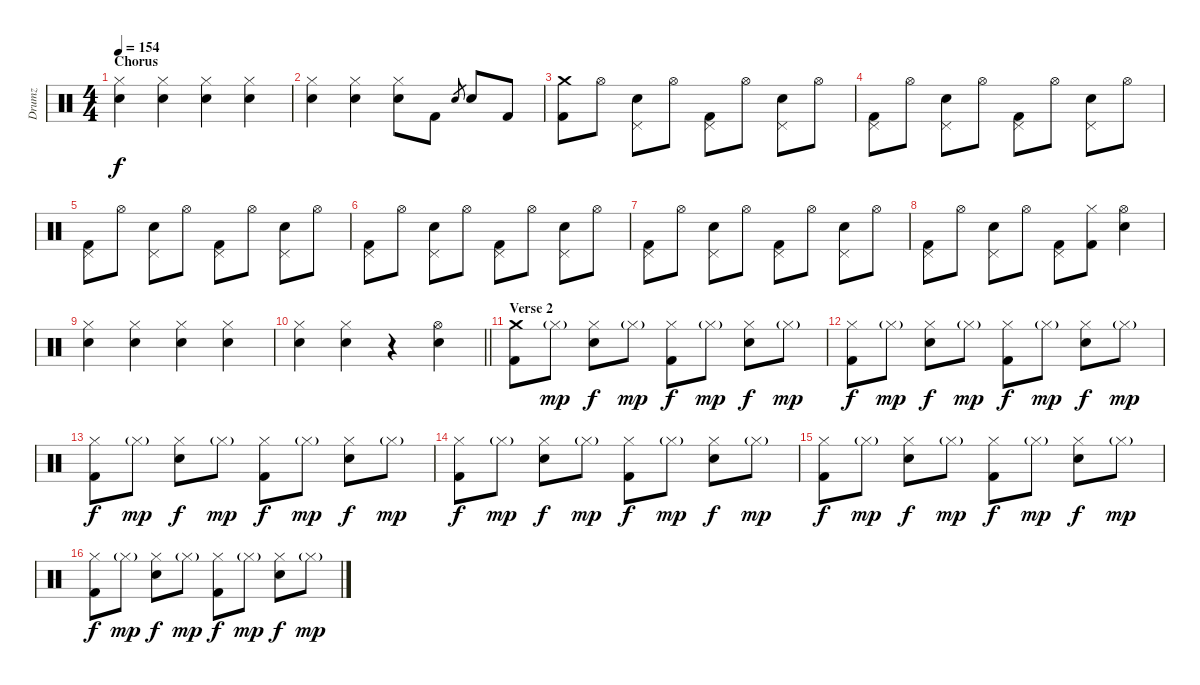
\track ("Drumz" "Drumz") {instrument percussion}
\staff {score}
\articulation defaults
\ts (4 4)
\section ("" "Chorus")
\tempo 154
\clef neutral
\ks c
("Hi-Hat (closed)" "Electric Snare (hit)").4{dy f} ("Hi-Hat (closed)" "Electric Snare (hit)").4 ("Hi-Hat (closed)" "Electric Snare (hit)").4 ("Hi-Hat (closed)" "Electric Snare (hit)").4 |
("Hi-Hat (closed)" "Electric Snare (hit)").4 ("Hi-Hat (closed)" "Electric Snare (hit)").4 ("Hi-Hat (closed)" "Electric Snare (hit)").8 "Kick (hit) 2".8 "Electric Snare (hit)".8{gr} "Electric Snare (hit)".8 "Kick (hit) 2".8 |
("Crash medium (hit)" "Kick (hit) 2").8 "Hi-Hat (open)".8 ("Pedal Hi-Hat (hit)" "Electric Snare (hit)").8 "Hi-Hat (open)".8 ("Pedal Hi-Hat (hit)" "Kick (hit) 2").8 "Hi-Hat (open)".8 ("Pedal Hi-Hat (hit)" "Electric Snare (hit)").8 "Hi-Hat (open)".8 |
("Pedal Hi-Hat (hit)" "Kick (hit) 2").8 "Hi-Hat (open)".8 ("Pedal Hi-Hat (hit)" "Electric Snare (hit)").8 "Hi-Hat (open)".8 ("Pedal Hi-Hat (hit)" "Kick (hit) 2").8 "Hi-Hat (open)".8 ("Pedal Hi-Hat (hit)" "Electric Snare (hit)").8 "Hi-Hat (open)".8 |
("Pedal Hi-Hat (hit)" "Kick (hit) 2").8 "Hi-Hat (open)".8 ("Pedal Hi-Hat (hit)" "Electric Snare (hit)").8 "Hi-Hat (open)".8 ("Pedal Hi-Hat (hit)" "Kick (hit) 2").8 "Hi-Hat (open)".8 ("Pedal Hi-Hat (hit)" "Electric Snare (hit)").8 "Hi-Hat (open)".8 |
("Pedal Hi-Hat (hit)" "Kick (hit) 2").8 "Hi-Hat (open)".8 ("Pedal Hi-Hat (hit)" "Electric Snare (hit)").8 "Hi-Hat (open)".8 ("Pedal Hi-Hat (hit)" "Kick (hit) 2").8 "Hi-Hat (open)".8 ("Pedal Hi-Hat (hit)" "Electric Snare (hit)").8 "Hi-Hat (open)".8 |
("Pedal Hi-Hat (hit)" "Kick (hit) 2").8 "Hi-Hat (open)".8 ("Pedal Hi-Hat (hit)" "Electric Snare (hit)").8 "Hi-Hat (open)".8 ("Pedal Hi-Hat (hit)" "Kick (hit) 2").8 "Hi-Hat (open)".8 ("Pedal Hi-Hat (hit)" "Electric Snare (hit)").8 "Hi-Hat (open)".8 |
("Pedal Hi-Hat (hit)" "Kick (hit) 2").8 "Hi-Hat (open)".8 ("Pedal Hi-Hat (hit)" "Electric Snare (hit)").8 "Hi-Hat (open)".8 ("Pedal Hi-Hat (hit)" "Kick (hit) 2").8 ("Hi-Hat (closed)" "Kick (hit) 2").8 ("Hi-Hat (open)" "Electric Snare (hit)").4 |
("Hi-Hat (closed)" "Electric Snare (hit)").4 ("Hi-Hat (closed)" "Electric Snare (hit)").4 ("Hi-Hat (closed)" "Electric Snare (hit)").4 ("Hi-Hat (closed)" "Electric Snare (hit)").4 |
\barLineRight lightlight
("Hi-Hat (closed)" "Electric Snare (hit)").4 ("Hi-Hat (closed)" "Electric Snare (hit)").4 r.4 ("Hi-Hat (open)" "Electric Snare (hit)").4 |
\section ("" "Verse 2")
("Crash medium (hit)" "Kick (hit) 2").8 "Hi-Hat (closed)"{g}.8{dy mp} ("Hi-Hat (closed)" "Electric Snare (hit)").8{dy f} "Hi-Hat (closed)"{g}.8{dy mp} ("Hi-Hat (closed)" "Kick (hit) 2").8{dy f} "Hi-Hat (closed)"{g}.8{dy mp} ("Hi-Hat (closed)" "Electric Snare (hit)").8{dy f} "Hi-Hat (closed)"{g}.8{dy mp} |
("Hi-Hat (closed)" "Kick (hit) 2").8{dy f} "Hi-Hat (closed)"{g}.8{dy mp} ("Hi-Hat (closed)" "Electric Snare (hit)").8{dy f} "Hi-Hat (closed)"{g}.8{dy mp} ("Hi-Hat (closed)" "Kick (hit) 2").8{dy f} "Hi-Hat (closed)"{g}.8{dy mp} ("Hi-Hat (closed)" "Electric Snare (hit)").8{dy f} "Hi-Hat (closed)"{g}.8{dy mp} |
("Hi-Hat (closed)" "Kick (hit) 2").8{dy f} "Hi-Hat (closed)"{g}.8{dy mp} ("Hi-Hat (closed)" "Electric Snare (hit)").8{dy f} "Hi-Hat (closed)"{g}.8{dy mp} ("Hi-Hat (closed)" "Kick (hit) 2").8{dy f} "Hi-Hat (closed)"{g}.8{dy mp} ("Hi-Hat (closed)" "Electric Snare (hit)").8{dy f} "Hi-Hat (closed)"{g}.8{dy mp} |
("Hi-Hat (closed)" "Kick (hit) 2").8{dy f} "Hi-Hat (closed)"{g}.8{dy mp} ("Hi-Hat (closed)" "Electric Snare (hit)").8{dy f} "Hi-Hat (closed)"{g}.8{dy mp} ("Hi-Hat (closed)" "Kick (hit) 2").8{dy f} "Hi-Hat (closed)"{g}.8{dy mp} ("Hi-Hat (closed)" "Electric Snare (hit)").8{dy f} "Hi-Hat (closed)"{g}.8{dy mp} |
("Hi-Hat (closed)" "Kick (hit) 2").8{dy f} "Hi-Hat (closed)"{g}.8{dy mp} ("Hi-Hat (closed)" "Electric Snare (hit)").8{dy f} "Hi-Hat (closed)"{g}.8{dy mp} ("Hi-Hat (closed)" "Kick (hit) 2").8{dy f} "Hi-Hat (closed)"{g}.8{dy mp} ("Hi-Hat (closed)" "Electric Snare (hit)").8{dy f} "Hi-Hat (closed)"{g}.8{dy mp} |
("Hi-Hat (closed)" "Kick (hit) 2").8{dy f} "Hi-Hat (closed)"{g}.8{dy mp} ("Hi-Hat (closed)" "Electric Snare (hit)").8{dy f} "Hi-Hat (closed)"{g}.8{dy mp} ("Hi-Hat (closed)" "Kick (hit) 2").8{dy f} "Hi-Hat (closed)"{g}.8{dy mp} ("Hi-Hat (closed)" "Electric Snare (hit)").8{dy f} "Hi-Hat (closed)"{g}.8{dy mp}
